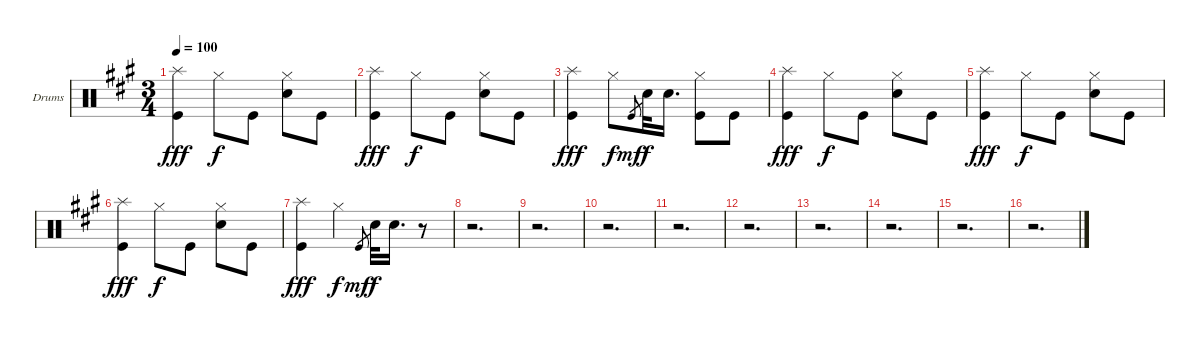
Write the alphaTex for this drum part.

\bracketExtendMode groupsimilarinstruments
\firstSystemTrackNameOrientation horizontal
\otherSystemsTrackNameOrientation horizontal
\track ("Drumkit" "Drums") {instrument percussion}
\staff {score}
\articulation defaults
\ts (3 4)
\tempo 100
\clef neutral
\scale
1.05801
\ks a
("Splash (hit)" "Kick (hit)").4{dy fff} "Hi-Hat (closed)".8{dy f} "Kick (hit)".8 ("Hi-Hat (closed)" "Snare (hit) 2").8 "Kick (hit)".8 |
\scale
0.941992 ("Splash (hit)" "Kick (hit)").4{dy fff} "Hi-Hat (closed)".8{dy f} "Kick (hit)".8 ("Hi-Hat (closed)" "Snare (hit) 2").8 "Kick (hit)".8 |
\scale
1.05801 ("Splash (hit)" "Kick (hit)").4{dy fff} "Hi-Hat (closed)".8{dy f} "Kick (hit)".8{gr dy mf} "Snare (hit) 2".32{dy f} "Snare (hit) 2".16{d} ("Hi-Hat (closed)" "Kick (hit)").8 "Kick (hit)".8 |
\scale
0.941992 ("Splash (hit)" "Kick (hit)").4{dy fff} "Hi-Hat (closed)".8{dy f} "Kick (hit)".8 ("Hi-Hat (closed)" "Snare (hit) 2").8 "Kick (hit)".8 |
\scale
1.05801 ("Splash (hit)" "Kick (hit)").4{dy fff} "Hi-Hat (closed)".8{dy f} "Kick (hit)".8 ("Hi-Hat (closed)" "Snare (hit) 2").8 "Kick (hit)".8 |
\scale
0.941992 ("Splash (hit)" "Kick (hit)").4{dy fff} "Hi-Hat (closed)".8{dy f} "Kick (hit)".8 ("Hi-Hat (closed)" "Snare (hit) 2").8 "Kick (hit)".8 |
\scale
1.05801 ("Splash (hit)" "Kick (hit)").4{dy fff} "Hi-Hat (closed)".4{dy f} "Kick (hit)".8{gr dy mf} "Snare (hit) 2".32{dy f} "Snare (hit) 2".16{d} r.8 |
\scale
0.941992 r.2{d} |
\scale
1.05801 r.2{d} |
\scale
0.941992 r.2{d} |
\scale
1.05801 r.2{d} |
\scale
0.941992 r.2{d} |
\scale
1.05801 r.2{d} |
\scale
0.941992 r.2{d} |
\scale
1.05801 r.2{d} |
\scale
0.941992 r.2{d}
